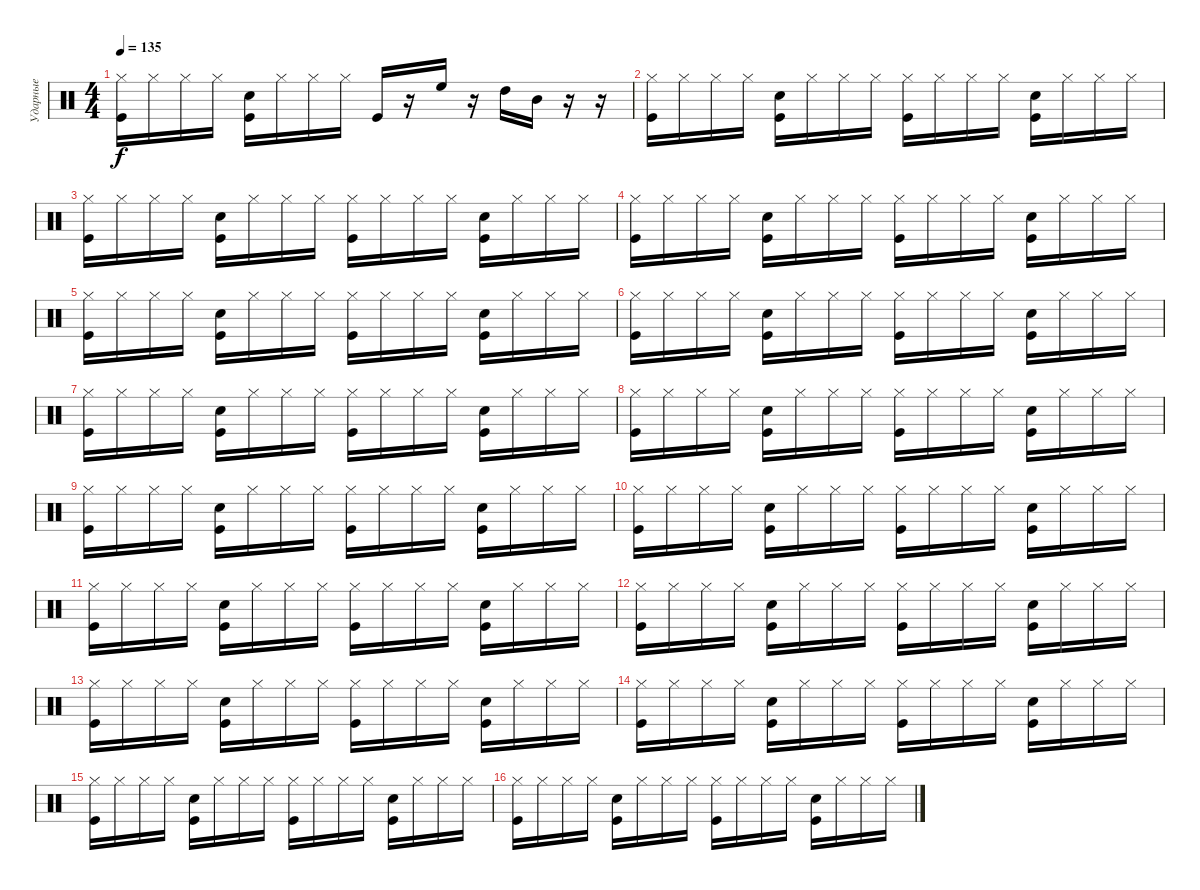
\track ("Ударные" "Ударные") {instrument percussion}
\staff {score}
\articulation defaults
\ts (4 4)
\tempo 135
\clef neutral
\ks c
("Hi-Hat (closed)" "Kick (hit)").16{dy f} "Hi-Hat (closed)".16 "Hi-Hat (closed)".16 "Hi-Hat (closed)".16 ("Kick (hit)" "Snare (hit) 2").16 "Hi-Hat (closed)".16 "Hi-Hat (closed)".16 "Hi-Hat (closed)".16 "Kick (hit)".16 r.16 "High Floor Tom (hit)".16 r.16 "High Tom (hit)".16 "Mid Tom (hit)".16 r.16 r.16 |
("Hi-Hat (closed)" "Kick (hit)").16 "Hi-Hat (closed)".16 "Hi-Hat (closed)".16 "Hi-Hat (closed)".16 ("Kick (hit)" "Snare (hit) 2").16 "Hi-Hat (closed)".16 "Hi-Hat (closed)".16 "Hi-Hat (closed)".16 ("Hi-Hat (closed)" "Kick (hit)").16 "Hi-Hat (closed)".16 "Hi-Hat (closed)".16 "Hi-Hat (closed)".16 ("Kick (hit)" "Snare (hit) 2").16 "Hi-Hat (closed)".16 "Hi-Hat (closed)".16 "Hi-Hat (closed)".16 |
("Hi-Hat (closed)" "Kick (hit)").16 "Hi-Hat (closed)".16 "Hi-Hat (closed)".16 "Hi-Hat (closed)".16 ("Kick (hit)" "Snare (hit) 2").16 "Hi-Hat (closed)".16 "Hi-Hat (closed)".16 "Hi-Hat (closed)".16 ("Hi-Hat (closed)" "Kick (hit)").16 "Hi-Hat (closed)".16 "Hi-Hat (closed)".16 "Hi-Hat (closed)".16 ("Kick (hit)" "Snare (hit) 2").16 "Hi-Hat (closed)".16 "Hi-Hat (closed)".16 "Hi-Hat (closed)".16 |
("Hi-Hat (closed)" "Kick (hit)").16 "Hi-Hat (closed)".16 "Hi-Hat (closed)".16 "Hi-Hat (closed)".16 ("Kick (hit)" "Snare (hit) 2").16 "Hi-Hat (closed)".16 "Hi-Hat (closed)".16 "Hi-Hat (closed)".16 ("Hi-Hat (closed)" "Kick (hit)").16 "Hi-Hat (closed)".16 "Hi-Hat (closed)".16 "Hi-Hat (closed)".16 ("Kick (hit)" "Snare (hit) 2").16 "Hi-Hat (closed)".16 "Hi-Hat (closed)".16 "Hi-Hat (closed)".16 |
("Hi-Hat (closed)" "Kick (hit)").16 "Hi-Hat (closed)".16 "Hi-Hat (closed)".16 "Hi-Hat (closed)".16 ("Kick (hit)" "Snare (hit) 2").16 "Hi-Hat (closed)".16 "Hi-Hat (closed)".16 "Hi-Hat (closed)".16 ("Hi-Hat (closed)" "Kick (hit)").16 "Hi-Hat (closed)".16 "Hi-Hat (closed)".16 "Hi-Hat (closed)".16 ("Kick (hit)" "Snare (hit) 2").16 "Hi-Hat (closed)".16 "Hi-Hat (closed)".16 "Hi-Hat (closed)".16 |
("Hi-Hat (closed)" "Kick (hit)").16 "Hi-Hat (closed)".16 "Hi-Hat (closed)".16 "Hi-Hat (closed)".16 ("Kick (hit)" "Snare (hit) 2").16 "Hi-Hat (closed)".16 "Hi-Hat (closed)".16 "Hi-Hat (closed)".16 ("Hi-Hat (closed)" "Kick (hit)").16 "Hi-Hat (closed)".16 "Hi-Hat (closed)".16 "Hi-Hat (closed)".16 ("Kick (hit)" "Snare (hit) 2").16 "Hi-Hat (closed)".16 "Hi-Hat (closed)".16 "Hi-Hat (closed)".16 |
("Hi-Hat (closed)" "Kick (hit)").16 "Hi-Hat (closed)".16 "Hi-Hat (closed)".16 "Hi-Hat (closed)".16 ("Kick (hit)" "Snare (hit) 2").16 "Hi-Hat (closed)".16 "Hi-Hat (closed)".16 "Hi-Hat (closed)".16 ("Hi-Hat (closed)" "Kick (hit)").16 "Hi-Hat (closed)".16 "Hi-Hat (closed)".16 "Hi-Hat (closed)".16 ("Kick (hit)" "Snare (hit) 2").16 "Hi-Hat (closed)".16 "Hi-Hat (closed)".16 "Hi-Hat (closed)".16 |
("Hi-Hat (closed)" "Kick (hit)").16 "Hi-Hat (closed)".16 "Hi-Hat (closed)".16 "Hi-Hat (closed)".16 ("Kick (hit)" "Snare (hit) 2").16 "Hi-Hat (closed)".16 "Hi-Hat (closed)".16 "Hi-Hat (closed)".16 ("Hi-Hat (closed)" "Kick (hit)").16 "Hi-Hat (closed)".16 "Hi-Hat (closed)".16 "Hi-Hat (closed)".16 ("Kick (hit)" "Snare (hit) 2").16 "Hi-Hat (closed)".16 "Hi-Hat (closed)".16 "Hi-Hat (closed)".16 |
("Hi-Hat (closed)" "Kick (hit)").16 "Hi-Hat (closed)".16 "Hi-Hat (closed)".16 "Hi-Hat (closed)".16 ("Kick (hit)" "Snare (hit) 2").16 "Hi-Hat (closed)".16 "Hi-Hat (closed)".16 "Hi-Hat (closed)".16 ("Hi-Hat (closed)" "Kick (hit)").16 "Hi-Hat (closed)".16 "Hi-Hat (closed)".16 "Hi-Hat (closed)".16 ("Kick (hit)" "Snare (hit) 2").16 "Hi-Hat (closed)".16 "Hi-Hat (closed)".16 "Hi-Hat (closed)".16 |
("Hi-Hat (closed)" "Kick (hit)").16 "Hi-Hat (closed)".16 "Hi-Hat (closed)".16 "Hi-Hat (closed)".16 ("Kick (hit)" "Snare (hit) 2").16 "Hi-Hat (closed)".16 "Hi-Hat (closed)".16 "Hi-Hat (closed)".16 ("Hi-Hat (closed)" "Kick (hit)").16 "Hi-Hat (closed)".16 "Hi-Hat (closed)".16 "Hi-Hat (closed)".16 ("Kick (hit)" "Snare (hit) 2").16 "Hi-Hat (closed)".16 "Hi-Hat (closed)".16 "Hi-Hat (closed)".16 |
("Hi-Hat (closed)" "Kick (hit)").16 "Hi-Hat (closed)".16 "Hi-Hat (closed)".16 "Hi-Hat (closed)".16 ("Kick (hit)" "Snare (hit) 2").16 "Hi-Hat (closed)".16 "Hi-Hat (closed)".16 "Hi-Hat (closed)".16 ("Hi-Hat (closed)" "Kick (hit)").16 "Hi-Hat (closed)".16 "Hi-Hat (closed)".16 "Hi-Hat (closed)".16 ("Kick (hit)" "Snare (hit) 2").16 "Hi-Hat (closed)".16 "Hi-Hat (closed)".16 "Hi-Hat (closed)".16 |
("Hi-Hat (closed)" "Kick (hit)").16 "Hi-Hat (closed)".16 "Hi-Hat (closed)".16 "Hi-Hat (closed)".16 ("Kick (hit)" "Snare (hit) 2").16 "Hi-Hat (closed)".16 "Hi-Hat (closed)".16 "Hi-Hat (closed)".16 ("Hi-Hat (closed)" "Kick (hit)").16 "Hi-Hat (closed)".16 "Hi-Hat (closed)".16 "Hi-Hat (closed)".16 ("Kick (hit)" "Snare (hit) 2").16 "Hi-Hat (closed)".16 "Hi-Hat (closed)".16 "Hi-Hat (closed)".16 |
("Hi-Hat (closed)" "Kick (hit)").16 "Hi-Hat (closed)".16 "Hi-Hat (closed)".16 "Hi-Hat (closed)".16 ("Kick (hit)" "Snare (hit) 2").16 "Hi-Hat (closed)".16 "Hi-Hat (closed)".16 "Hi-Hat (closed)".16 ("Hi-Hat (closed)" "Kick (hit)").16 "Hi-Hat (closed)".16 "Hi-Hat (closed)".16 "Hi-Hat (closed)".16 ("Kick (hit)" "Snare (hit) 2").16 "Hi-Hat (closed)".16 "Hi-Hat (closed)".16 "Hi-Hat (closed)".16 |
("Hi-Hat (closed)" "Kick (hit)").16 "Hi-Hat (closed)".16 "Hi-Hat (closed)".16 "Hi-Hat (closed)".16 ("Kick (hit)" "Snare (hit) 2").16 "Hi-Hat (closed)".16 "Hi-Hat (closed)".16 "Hi-Hat (closed)".16 ("Hi-Hat (closed)" "Kick (hit)").16 "Hi-Hat (closed)".16 "Hi-Hat (closed)".16 "Hi-Hat (closed)".16 ("Kick (hit)" "Snare (hit) 2").16 "Hi-Hat (closed)".16 "Hi-Hat (closed)".16 "Hi-Hat (closed)".16 |
("Hi-Hat (closed)" "Kick (hit)").16 "Hi-Hat (closed)".16 "Hi-Hat (closed)".16 "Hi-Hat (closed)".16 ("Kick (hit)" "Snare (hit) 2").16 "Hi-Hat (closed)".16 "Hi-Hat (closed)".16 "Hi-Hat (closed)".16 ("Hi-Hat (closed)" "Kick (hit)").16 "Hi-Hat (closed)".16 "Hi-Hat (closed)".16 "Hi-Hat (closed)".16 ("Kick (hit)" "Snare (hit) 2").16 "Hi-Hat (closed)".16 "Hi-Hat (closed)".16 "Hi-Hat (closed)".16 |
("Hi-Hat (closed)" "Kick (hit)").16 "Hi-Hat (closed)".16 "Hi-Hat (closed)".16 "Hi-Hat (closed)".16 ("Kick (hit)" "Snare (hit) 2").16 "Hi-Hat (closed)".16 "Hi-Hat (closed)".16 "Hi-Hat (closed)".16 ("Hi-Hat (closed)" "Kick (hit)").16 "Hi-Hat (closed)".16 "Hi-Hat (closed)".16 "Hi-Hat (closed)".16 ("Kick (hit)" "Snare (hit) 2").16 "Hi-Hat (closed)".16 "Hi-Hat (closed)".16 "Hi-Hat (closed)".16
